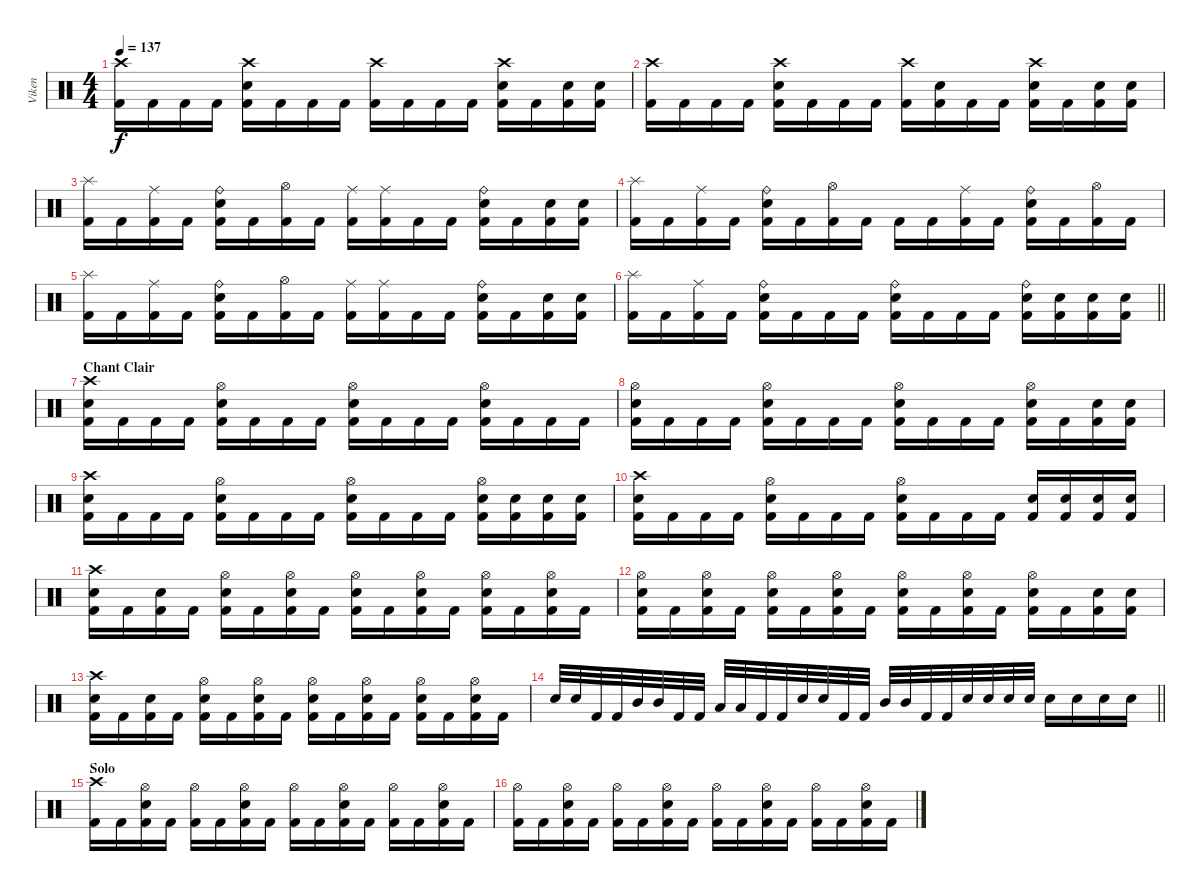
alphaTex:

\track ("Viken" "Viken") {instrument percussion}
\staff {score}
\articulation defaults
\ts (4 4)
\tempo 137
\clef neutral
\ks c
("Crash high (hit)" "Kick (hit) 2").16{dy f} "Kick (hit) 2".16 "Kick (hit) 2".16 "Kick (hit) 2".16 ("Crash high (hit)" "Electric Snare (hit)" "Kick (hit) 2").16 "Kick (hit) 2".16 "Kick (hit) 2".16 "Kick (hit) 2".16 ("Crash high (hit)" "Kick (hit) 2").16 "Kick (hit) 2".16 "Kick (hit) 2".16 "Kick (hit) 2".16 ("Crash high (hit)" "Electric Snare (hit)" "Kick (hit) 2").16 "Kick (hit) 2".16 ("Electric Snare (hit)" "Kick (hit) 2").16 ("Electric Snare (hit)" "Kick (hit) 2").16 |
("Crash high (hit)" "Kick (hit) 2").16 "Kick (hit) 2".16 "Kick (hit) 2".16 "Kick (hit) 2".16 ("Crash high (hit)" "Electric Snare (hit)" "Kick (hit) 2").16 "Kick (hit) 2".16 "Kick (hit) 2".16 "Kick (hit) 2".16 ("Crash high (hit)" "Kick (hit) 2").16 ("Electric Snare (hit)" "Kick (hit) 2").16 "Kick (hit) 2".16 "Kick (hit) 2".16 ("Crash high (hit)" "Electric Snare (hit)" "Kick (hit) 2").16 "Kick (hit) 2".16 ("Electric Snare (hit)" "Kick (hit) 2").16 ("Electric Snare (hit)" "Kick (hit) 2").16 |
("Splash (hit)" "Kick (hit) 2").16 "Kick (hit) 2".16 ("Ride (middle)" "Kick (hit) 2").16 "Kick (hit) 2".16 ("Ride (bell)" "Electric Snare (hit)" "Kick (hit) 2").16 "Kick (hit) 2".16 ("Hi-Hat (open)" "Kick (hit) 2").16 "Kick (hit) 2".16 ("Ride (middle)" "Kick (hit) 2").16 ("Ride (middle)" "Kick (hit) 2").16 "Kick (hit) 2".16 "Kick (hit) 2".16 ("Ride (bell)" "Electric Snare (hit)" "Kick (hit) 2").16 "Kick (hit) 2".16 ("Electric Snare (hit)" "Kick (hit) 2").16 ("Electric Snare (hit)" "Kick (hit) 2").16 |
("Splash (hit)" "Kick (hit) 2").16 "Kick (hit) 2".16 ("Ride (middle)" "Kick (hit) 2").16 "Kick (hit) 2".16 ("Ride (bell)" "Electric Snare (hit)" "Kick (hit) 2").16 "Kick (hit) 2".16 ("Hi-Hat (open)" "Kick (hit) 2").16 "Kick (hit) 2".16 "Kick (hit) 2".16 "Kick (hit) 2".16 ("Ride (middle)" "Kick (hit) 2").16 "Kick (hit) 2".16 ("Ride (bell)" "Electric Snare (hit)" "Kick (hit) 2").16 "Kick (hit) 2".16 ("Hi-Hat (open)" "Kick (hit) 2").16 "Kick (hit) 2".16 |
("Splash (hit)" "Kick (hit) 2").16 "Kick (hit) 2".16 ("Ride (middle)" "Kick (hit) 2").16 "Kick (hit) 2".16 ("Ride (bell)" "Electric Snare (hit)" "Kick (hit) 2").16 "Kick (hit) 2".16 ("Hi-Hat (open)" "Kick (hit) 2").16 "Kick (hit) 2".16 ("Ride (middle)" "Kick (hit) 2").16 ("Ride (middle)" "Kick (hit) 2").16 "Kick (hit) 2".16 "Kick (hit) 2".16 ("Ride (bell)" "Electric Snare (hit)" "Kick (hit) 2").16 "Kick (hit) 2".16 ("Electric Snare (hit)" "Kick (hit) 2").16 ("Electric Snare (hit)" "Kick (hit) 2").16 |
\barLineRight lightlight
("Splash (hit)" "Kick (hit) 2").16 "Kick (hit) 2".16 ("Ride (middle)" "Kick (hit) 2").16 "Kick (hit) 2".16 ("Ride (bell)" "Electric Snare (hit)" "Kick (hit) 2").16 "Kick (hit) 2".16 "Kick (hit) 2".16 "Kick (hit) 2".16 ("Ride (bell)" "Electric Snare (hit)" "Kick (hit) 2").16 "Kick (hit) 2".16 "Kick (hit) 2".16 "Kick (hit) 2".16 ("Ride (bell)" "Electric Snare (hit)" "Kick (hit) 2").16 ("Electric Snare (hit)" "Kick (hit) 2").16 ("Electric Snare (hit)" "Kick (hit) 2").16 ("Electric Snare (hit)" "Kick (hit) 2").16 |
\section ("" "Chant Clair")
("Crash high (hit)" "Electric Snare (hit)" "Kick (hit) 2").16 "Kick (hit) 2".16 "Kick (hit) 2".16 "Kick (hit) 2".16 ("Hi-Hat (open)" "Electric Snare (hit)" "Kick (hit) 2").16 "Kick (hit) 2".16 "Kick (hit) 2".16 "Kick (hit) 2".16 ("Hi-Hat (open)" "Electric Snare (hit)" "Kick (hit) 2").16 "Kick (hit) 2".16 "Kick (hit) 2".16 "Kick (hit) 2".16 ("Hi-Hat (open)" "Electric Snare (hit)" "Kick (hit) 2").16 "Kick (hit) 2".16 "Kick (hit) 2".16 "Kick (hit) 2".16 |
("Hi-Hat (open)" "Electric Snare (hit)" "Kick (hit) 2").16 "Kick (hit) 2".16 "Kick (hit) 2".16 "Kick (hit) 2".16 ("Hi-Hat (open)" "Electric Snare (hit)" "Kick (hit) 2").16 "Kick (hit) 2".16 "Kick (hit) 2".16 "Kick (hit) 2".16 ("Hi-Hat (open)" "Electric Snare (hit)" "Kick (hit) 2").16 "Kick (hit) 2".16 "Kick (hit) 2".16 "Kick (hit) 2".16 ("Hi-Hat (open)" "Electric Snare (hit)" "Kick (hit) 2").16 "Kick (hit) 2".16 ("Electric Snare (hit)" "Kick (hit) 2").16 ("Electric Snare (hit)" "Kick (hit) 2").16 |
("Crash high (hit)" "Electric Snare (hit)" "Kick (hit) 2").16 "Kick (hit) 2".16 "Kick (hit) 2".16 "Kick (hit) 2".16 ("Hi-Hat (open)" "Electric Snare (hit)" "Kick (hit) 2").16 "Kick (hit) 2".16 "Kick (hit) 2".16 "Kick (hit) 2".16 ("Hi-Hat (open)" "Electric Snare (hit)" "Kick (hit) 2").16 "Kick (hit) 2".16 "Kick (hit) 2".16 "Kick (hit) 2".16 ("Hi-Hat (open)" "Electric Snare (hit)" "Kick (hit) 2").16 ("Electric Snare (hit)" "Kick (hit) 2").16 ("Electric Snare (hit)" "Kick (hit) 2").16 ("Electric Snare (hit)" "Kick (hit) 2").16 |
("Crash high (hit)" "Electric Snare (hit)" "Kick (hit) 2").16 "Kick (hit) 2".16 "Kick (hit) 2".16 "Kick (hit) 2".16 ("Hi-Hat (open)" "Electric Snare (hit)" "Kick (hit) 2").16 "Kick (hit) 2".16 "Kick (hit) 2".16 "Kick (hit) 2".16 ("Hi-Hat (open)" "Electric Snare (hit)" "Kick (hit) 2").16 "Kick (hit) 2".16 "Kick (hit) 2".16 "Kick (hit) 2".16 ("Electric Snare (hit)" "Kick (hit) 2").16 ("Electric Snare (hit)" "Kick (hit) 2").16 ("Electric Snare (hit)" "Kick (hit) 2").16 ("Electric Snare (hit)" "Kick (hit) 2").16 |
("Crash high (hit)" "Electric Snare (hit)" "Kick (hit) 2").16 "Kick (hit) 2".16 ("Electric Snare (hit)" "Kick (hit) 2").16 "Kick (hit) 2".16 ("Hi-Hat (open)" "Electric Snare (hit)" "Kick (hit) 2").16 "Kick (hit) 2".16 ("Hi-Hat (open)" "Electric Snare (hit)" "Kick (hit) 2").16 "Kick (hit) 2".16 ("Hi-Hat (open)" "Electric Snare (hit)" "Kick (hit) 2").16 "Kick (hit) 2".16 ("Hi-Hat (open)" "Electric Snare (hit)" "Kick (hit) 2").16 "Kick (hit) 2".16 ("Hi-Hat (open)" "Electric Snare (hit)" "Kick (hit) 2").16 "Kick (hit) 2".16 ("Hi-Hat (open)" "Electric Snare (hit)" "Kick (hit) 2").16 "Kick (hit) 2".16 |
("Hi-Hat (open)" "Electric Snare (hit)" "Kick (hit) 2").16 "Kick (hit) 2".16 ("Hi-Hat (open)" "Electric Snare (hit)" "Kick (hit) 2").16 "Kick (hit) 2".16 ("Hi-Hat (open)" "Electric Snare (hit)" "Kick (hit) 2").16 "Kick (hit) 2".16 ("Hi-Hat (open)" "Electric Snare (hit)" "Kick (hit) 2").16 "Kick (hit) 2".16 ("Hi-Hat (open)" "Electric Snare (hit)" "Kick (hit) 2").16 "Kick (hit) 2".16 ("Hi-Hat (open)" "Electric Snare (hit)" "Kick (hit) 2").16 "Kick (hit) 2".16 ("Hi-Hat (open)" "Electric Snare (hit)" "Kick (hit) 2").16 "Kick (hit) 2".16 ("Electric Snare (hit)" "Kick (hit) 2").16 ("Electric Snare (hit)" "Kick (hit) 2").16 |
("Crash high (hit)" "Electric Snare (hit)" "Kick (hit) 2").16 "Kick (hit) 2".16 ("Electric Snare (hit)" "Kick (hit) 2").16 "Kick (hit) 2".16 ("Hi-Hat (open)" "Electric Snare (hit)" "Kick (hit) 2").16 "Kick (hit) 2".16 ("Hi-Hat (open)" "Electric Snare (hit)" "Kick (hit) 2").16 "Kick (hit) 2".16 ("Hi-Hat (open)" "Electric Snare (hit)" "Kick (hit) 2").16 "Kick (hit) 2".16 ("Hi-Hat (open)" "Electric Snare (hit)" "Kick (hit) 2").16 "Kick (hit) 2".16 ("Hi-Hat (open)" "Electric Snare (hit)" "Kick (hit) 2").16 "Kick (hit) 2".16 ("Hi-Hat (open)" "Electric Snare (hit)" "Kick (hit) 2").16 "Kick (hit) 2".16 |
\barLineRight lightlight "Electric Snare (hit)".32 "Electric Snare (hit)".32 "Kick (hit) 2".32 "Kick (hit) 2".32 "Mid Tom (hit)".32 "Mid Tom (hit)".32 "Kick (hit) 2".32 "Kick (hit) 2".32 "Low Tom (hit)".32 "Low Tom (hit)".32 "Kick (hit) 2".32 "Kick (hit) 2".32 "Electric Snare (hit)".32 "Electric Snare (hit)".32 "Kick (hit) 2".32 "Kick (hit) 2".32 "Mid Tom (hit)".32 "Mid Tom (hit)".32 "Kick (hit) 2".32 "Kick (hit) 2".32 "Electric Snare (hit)".32 "Electric Snare (hit)".32 "Electric Snare (hit)".32 "Electric Snare (hit)".32 "Electric Snare (hit)".16 "Electric Snare (hit)".16 "Electric Snare (hit)".16 "Electric Snare (hit)".16
|
\section ("" "Solo")
("Crash high (hit)" "Kick (hit) 2").16 "Kick (hit) 2".16 ("Hi-Hat (open)" "Electric Snare (hit)" "Kick (hit) 2").16 "Kick (hit) 2".16 ("Hi-Hat (open)" "Kick (hit) 2").16 "Kick (hit) 2".16 ("Hi-Hat (open)" "Electric Snare (hit)" "Kick (hit) 2").16 "Kick (hit) 2".16 ("Hi-Hat (open)" "Kick (hit) 2").16 "Kick (hit) 2".16 ("Hi-Hat (open)" "Electric Snare (hit)" "Kick (hit) 2").16 "Kick (hit) 2".16 ("Hi-Hat (open)" "Kick (hit) 2").16 "Kick (hit) 2".16 ("Hi-Hat (open)" "Electric Snare (hit)" "Kick (hit) 2").16 "Kick (hit) 2".16 |
("Hi-Hat (open)" "Kick (hit) 2").16 "Kick (hit) 2".16 ("Hi-Hat (open)" "Electric Snare (hit)" "Kick (hit) 2").16 "Kick (hit) 2".16 ("Hi-Hat (open)" "Kick (hit) 2").16 "Kick (hit) 2".16 ("Hi-Hat (open)" "Electric Snare (hit)" "Kick (hit) 2").16 "Kick (hit) 2".16 ("Hi-Hat (open)" "Kick (hit) 2").16 "Kick (hit) 2".16 ("Hi-Hat (open)" "Electric Snare (hit)" "Kick (hit) 2").16 "Kick (hit) 2".16 ("Hi-Hat (open)" "Kick (hit) 2").16 "Kick (hit) 2".16 ("Hi-Hat (open)" "Electric Snare (hit)" "Kick (hit) 2").16 "Kick (hit) 2".16
